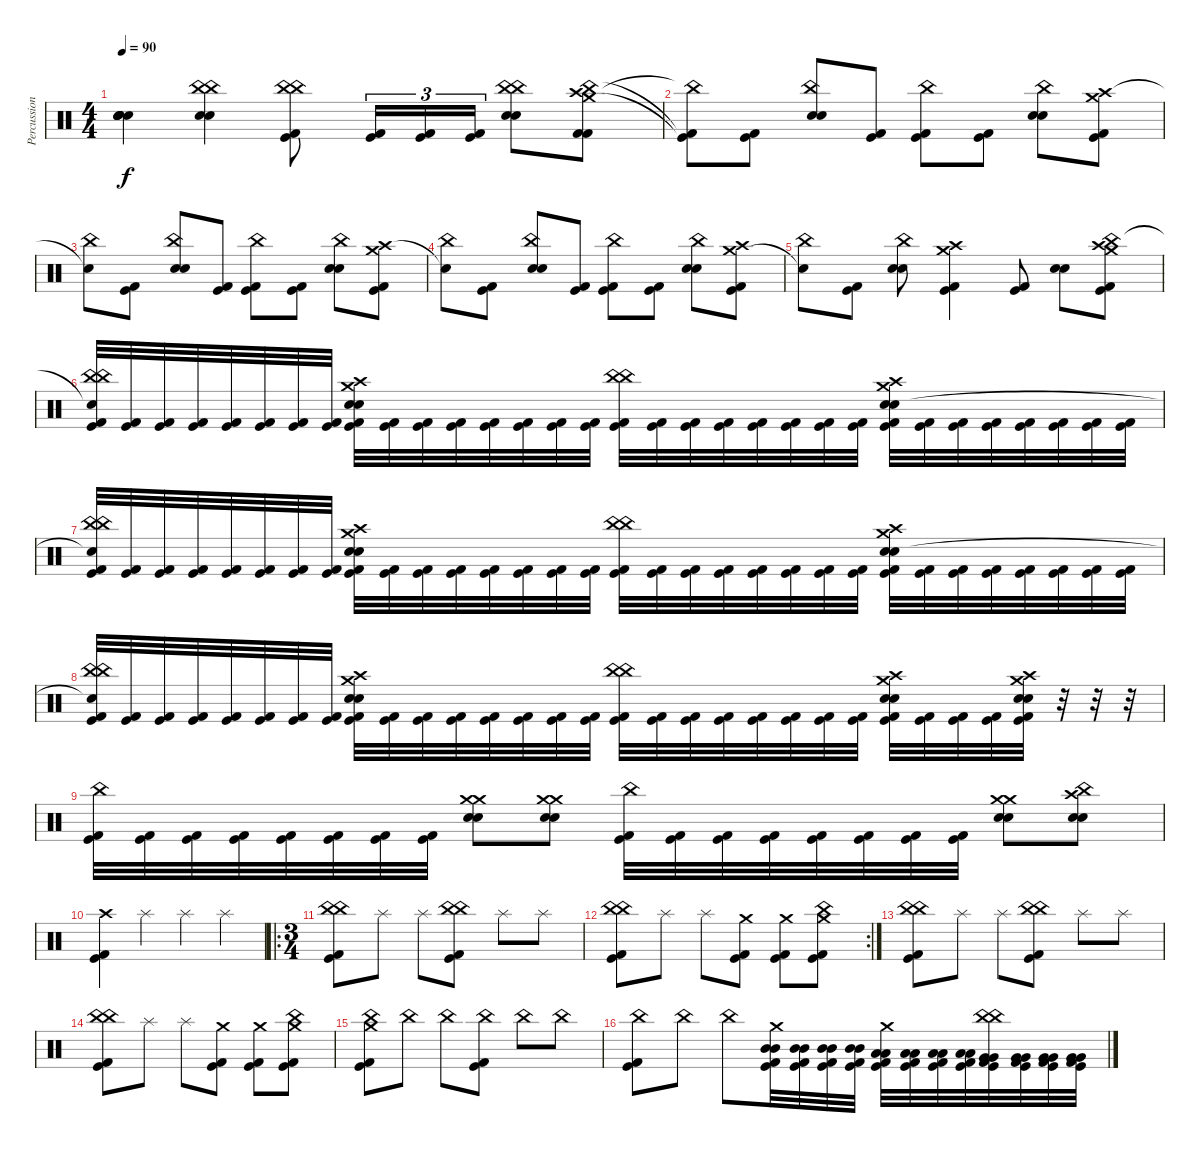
\track ("Percussion" "Percussion") {instrument percussion}
\staff {score}
\articulation defaults
\ts (4 4)
\tempo 90
\clef neutral
\ks c
("Snare (hit)"{t} "Snare (hit)"{t} "Snare (hit)"{t} "Snare (hit)"{t} "Snare (hit)"{t}).4{dy f} ("China (hit)" "China (hit)" "Electric Snare (hit)" "Snare (hit) 2").4 ("China (hit)" "China (hit)" "Kick (hit)" "Kick (hit) 2").8 ("Kick (hit)" "Kick (hit) 2").16{tu (3 2)} ("Kick (hit)" "Kick (hit) 2").16{tu (3 2)} ("Kick (hit)" "Kick (hit) 2").16{tu (3 2)} ("China (hit)" "China (hit)" "Electric Snare (hit)" "Snare (hit) 2").8 ("Crash high (hit)" "Crash medium (hit)" "China (hit)" "Kick (hit) 2" "Kick (hit) 2").8 |
("China (hit)"{t} "Kick (hit)"{t} "Kick (hit) 2"{t}).8 ("Kick (hit)" "Kick (hit) 2").8 ("China (hit)" "Electric Snare (hit)" "Snare (hit) 2").8 ("Kick (hit)" "Kick (hit) 2").8 ("China (hit)" "Kick (hit)" "Kick (hit) 2").8 ("Kick (hit)" "Kick (hit) 2").8 ("China (hit)" "Electric Snare (hit)" "Snare (hit) 2").8 ("Crash medium (hit)" "Crash high (hit)" "Kick (hit)" "Kick (hit) 2").8 |
("China (hit)" "Snare (hit)"{t}).8 ("Kick (hit)" "Kick (hit) 2").8 ("China (hit)" "Electric Snare (hit)" "Snare (hit) 2").8 ("Kick (hit)" "Kick (hit) 2").8 ("China (hit)" "Kick (hit)" "Kick (hit) 2").8 ("Kick (hit)" "Kick (hit) 2").8 ("China (hit)" "Electric Snare (hit)" "Snare (hit) 2").8 ("Crash medium (hit)" "Crash high (hit)" "Kick (hit)" "Kick (hit) 2").8 |
("China (hit)" "Snare (hit)"{t}).8 ("Kick (hit)" "Kick (hit) 2").8 ("China (hit)" "Electric Snare (hit)" "Snare (hit) 2").8 ("Kick (hit)" "Kick (hit) 2").8 ("China (hit)" "Kick (hit)" "Kick (hit) 2").8 ("Kick (hit)" "Kick (hit) 2").8 ("China (hit)" "Electric Snare (hit)" "Snare (hit) 2").8 ("Crash medium (hit)" "Crash high (hit)" "Kick (hit)" "Kick (hit) 2").8 |
("Snare (hit)"{t} "China (hit)").8 ("Kick (hit)" "Kick (hit) 2").8 ("China (hit)" "Electric Snare (hit)" "Snare (hit) 2").8 ("Crash medium (hit)" "Crash high (hit)" "Kick (hit)" "Kick (hit) 2").4 ("Kick (hit)" "Kick (hit) 2").8 ("Electric Snare (hit)" "Snare (hit) 2").8 ("Crash high (hit)" "Crash medium (hit)" "China (hit)" "Kick (hit)" "Kick (hit) 2").8 |
("China (hit)" "China (hit)" "Snare (hit)"{t} "Kick (hit)" "Kick (hit) 2").32 ("Kick (hit)" "Kick (hit) 2").32 ("Kick (hit)" "Kick (hit) 2").32 ("Kick (hit)" "Kick (hit) 2").32 ("Kick (hit)" "Kick (hit) 2").32 ("Kick (hit)" "Kick (hit) 2").32 ("Kick (hit)" "Kick (hit) 2").32 ("Kick (hit)" "Kick (hit) 2").32 ("Crash high (hit)" "Crash medium (hit)" "Electric Snare (hit)" "Snare (hit) 2" "Kick (hit)" "Kick (hit) 2").32 ("Kick (hit)" "Kick (hit) 2").32 ("Kick (hit)" "Kick (hit) 2").32 ("Kick (hit)" "Kick (hit) 2").32 ("Kick (hit)" "Kick (hit) 2").32 ("Kick (hit)" "Kick (hit) 2").32 ("Kick (hit)" "Kick (hit) 2").32 ("Kick (hit)" "Kick (hit) 2").32 ("China (hit)" "China (hit)" "Kick (hit)" "Kick (hit) 2").32 ("Kick (hit)" "Kick (hit) 2").32 ("Kick (hit)" "Kick (hit) 2").32 ("Kick (hit)" "Kick (hit) 2").32 ("Kick (hit)" "Kick (hit) 2").32 ("Kick (hit)" "Kick (hit) 2").32 ("Kick (hit)" "Kick (hit) 2").32 ("Kick (hit)" "Kick (hit) 2").32 ("Crash high (hit)" "Crash medium (hit)" "Electric Snare (hit)" "Snare (hit) 2" "Kick (hit)" "Kick (hit) 2").32 ("Kick (hit)" "Kick (hit) 2").32 ("Kick (hit)" "Kick (hit) 2").32 ("Kick (hit)" "Kick (hit) 2").32 ("Kick (hit)" "Kick (hit) 2").32 ("Kick (hit)" "Kick (hit) 2").32 ("Kick (hit)" "Kick (hit) 2").32 ("Kick (hit)" "Kick (hit) 2").32 |
("China (hit)" "China (hit)" "Snare (hit)"{t} "Kick (hit)" "Kick (hit) 2").32 ("Kick (hit)" "Kick (hit) 2").32 ("Kick (hit)" "Kick (hit) 2").32 ("Kick (hit)" "Kick (hit) 2").32 ("Kick (hit)" "Kick (hit) 2").32 ("Kick (hit)" "Kick (hit) 2").32 ("Kick (hit)" "Kick (hit) 2").32 ("Kick (hit)" "Kick (hit) 2").32 ("Crash high (hit)" "Crash medium (hit)" "Electric Snare (hit)" "Snare (hit) 2" "Kick (hit)" "Kick (hit) 2").32 ("Kick (hit)" "Kick (hit) 2").32 ("Kick (hit)" "Kick (hit) 2").32 ("Kick (hit)" "Kick (hit) 2").32 ("Kick (hit)" "Kick (hit) 2").32 ("Kick (hit)" "Kick (hit) 2").32 ("Kick (hit)" "Kick (hit) 2").32 ("Kick (hit)" "Kick (hit) 2").32 ("China (hit)" "China (hit)" "Kick (hit)" "Kick (hit) 2").32 ("Kick (hit)" "Kick (hit) 2").32 ("Kick (hit)" "Kick (hit) 2").32 ("Kick (hit)" "Kick (hit) 2").32 ("Kick (hit)" "Kick (hit) 2").32 ("Kick (hit)" "Kick (hit) 2").32 ("Kick (hit)" "Kick (hit) 2").32 ("Kick (hit)" "Kick (hit) 2").32 ("Crash high (hit)" "Crash medium (hit)" "Electric Snare (hit)" "Snare (hit) 2" "Kick (hit)" "Kick (hit) 2").32 ("Kick (hit)" "Kick (hit) 2").32 ("Kick (hit)" "Kick (hit) 2").32 ("Kick (hit)" "Kick (hit) 2").32 ("Kick (hit)" "Kick (hit) 2").32 ("Kick (hit)" "Kick (hit) 2").32 ("Kick (hit)" "Kick (hit) 2").32 ("Kick (hit)" "Kick (hit) 2").32 |
("China (hit)" "China (hit)" "Snare (hit)"{t} "Kick (hit)" "Kick (hit) 2").32 ("Kick (hit)" "Kick (hit) 2").32 ("Kick (hit)" "Kick (hit) 2").32 ("Kick (hit)" "Kick (hit) 2").32 ("Kick (hit)" "Kick (hit) 2").32 ("Kick (hit)" "Kick (hit) 2").32 ("Kick (hit)" "Kick (hit) 2").32 ("Kick (hit)" "Kick (hit) 2").32 ("Crash high (hit)" "Crash medium (hit)" "Electric Snare (hit)" "Snare (hit) 2" "Kick (hit)" "Kick (hit) 2").32 ("Kick (hit)" "Kick (hit) 2").32 ("Kick (hit)" "Kick (hit) 2").32 ("Kick (hit)" "Kick (hit) 2").32 ("Kick (hit)" "Kick (hit) 2").32 ("Kick (hit)" "Kick (hit) 2").32 ("Kick (hit)" "Kick (hit) 2").32 ("Kick (hit)" "Kick (hit) 2").32 ("China (hit)" "China (hit)" "Kick (hit)" "Kick (hit) 2").32 ("Kick (hit)" "Kick (hit) 2").32 ("Kick (hit)" "Kick (hit) 2").32 ("Kick (hit)" "Kick (hit) 2").32 ("Kick (hit)" "Kick (hit) 2").32 ("Kick (hit)" "Kick (hit) 2").32 ("Kick (hit)" "Kick (hit) 2").32 ("Kick (hit)" "Kick (hit) 2").32 ("Crash high (hit)" "Crash medium (hit)" "Electric Snare (hit)" "Snare (hit) 2" "Kick (hit)" "Kick (hit) 2").32 ("Kick (hit)" "Kick (hit) 2").32 ("Kick (hit)" "Kick (hit) 2").32 ("Kick (hit)" "Kick (hit) 2").32 ("Crash high (hit)" "Crash medium (hit)" "Electric Snare (hit)" "Snare (hit) 2" "Kick (hit)" "Kick (hit) 2").32 r.32 r.32 r.32 |
("China (hit)" "Kick (hit)" "Kick (hit) 2").32 ("Kick (hit)" "Kick (hit) 2").32 ("Kick (hit)" "Kick (hit) 2").32 ("Kick (hit)" "Kick (hit) 2").32 ("Kick (hit)" "Kick (hit) 2").32 ("Kick (hit)" "Kick (hit) 2").32 ("Kick (hit)" "Kick (hit) 2").32 ("Kick (hit)" "Kick (hit) 2").32 ("Crash medium (hit)" "Crash medium (hit)" "Electric Snare (hit)" "Snare (hit) 2").8 ("Crash medium (hit)" "Crash medium (hit)" "Electric Snare (hit)" "Snare (hit) 2").8 ("China (hit)" "Kick (hit)" "Kick (hit) 2").32 ("Kick (hit)" "Kick (hit) 2").32 ("Kick (hit)" "Kick (hit) 2").32 ("Kick (hit)" "Kick (hit) 2").32 ("Kick (hit)" "Kick (hit) 2").32 ("Kick (hit)" "Kick (hit) 2").32 ("Kick (hit)" "Kick (hit) 2").32 ("Kick (hit)" "Kick (hit) 2").32 ("Crash medium (hit)" "Crash medium (hit)" "Electric Snare (hit)" "Snare (hit) 2").8 ("Crash high (hit)" "China (hit)" "Electric Snare (hit)" "Snare (hit) 2").8 |
("Crash high (hit)" "Kick (hit)" "Kick (hit) 2").4 "Splash (hit)".4 "Splash (hit)".4 "Splash (hit)".4 |
\ro
\ts (3 4)
("China (hit)" "China (hit)" "Kick (hit)" "Kick (hit) 2").8 "Splash (hit)".8 "Splash (hit)".8 ("China (hit)" "China (hit)" "Kick (hit)" "Kick (hit) 2").8 "Splash (hit)".8 "Splash (hit)".8 |
\rc 2
("China (hit)" "China (hit)" "Kick (hit)" "Kick (hit) 2").8 "Splash (hit)".8 "Splash (hit)".8 ("Crash medium (hit)" "Kick (hit)" "Kick (hit) 2").8 ("Crash medium (hit)" "Kick (hit)" "Kick (hit) 2").8 ("China (hit)" "Crash medium (hit)" "Kick (hit)" "Kick (hit) 2").8 |
("China (hit)" "China (hit)" "Kick (hit)" "Kick (hit) 2").8 "Splash (hit)".8 "Splash (hit)".8 ("China (hit)" "China (hit)" "Kick (hit)" "Kick (hit) 2").8 "Splash (hit)".8 "Splash (hit)".8 |
("China (hit)" "China (hit)" "Kick (hit)" "Kick (hit) 2").8 "Splash (hit)".8 "Splash (hit)".8 ("Crash medium (hit)" "Kick (hit)" "Kick (hit) 2").8 ("Crash medium (hit)" "Kick (hit)" "Kick (hit) 2").8 ("China (hit)" "Crash medium (hit)" "Kick (hit)" "Kick (hit) 2").8 |
("Crash medium (hit)" "China (hit)" "Kick (hit)" "Kick (hit) 2").8 "China (hit)".8 "China (hit)".8 ("China (hit)" "Kick (hit)" "Kick (hit) 2").8 "China (hit)".8 "China (hit)".8 |
("China (hit)" "Kick (hit)" "Kick (hit) 2").8 "China (hit)".8 "China (hit)".8 ("Crash medium (hit)" "Mid Tom (hit)" "Mid Tom (hit)" "Kick (hit)" "Kick (hit) 2").32 ("Mid Tom (hit)" "Mid Tom (hit)" "Kick (hit)" "Kick (hit) 2").32 ("Mid Tom (hit)" "Mid Tom (hit)" "Kick (hit)" "Kick (hit) 2").32 ("Mid Tom (hit)" "Mid Tom (hit)" "Kick (hit)" "Kick (hit) 2").32 ("Crash medium (hit)" "Low Tom (hit)" "Low Tom (hit)" "Kick (hit)" "Kick (hit) 2").32 ("Low Tom (hit)" "Low Tom (hit)" "Kick (hit)" "Kick (hit) 2").32 ("Low Tom (hit)" "Low Tom (hit)" "Kick (hit)" "Kick (hit) 2").32 ("Low Tom (hit)" "Low Tom (hit)" "Kick (hit)" "Kick (hit) 2").32 ("China (hit)" "China (hit)" "Kick (hit)" "Very Low Tom (hit)" "Very Low Tom (hit)" "Kick (hit) 2").32 ("Kick (hit)" "Very Low Tom (hit)" "Very Low Tom (hit)" "Kick (hit) 2").32 ("Kick (hit)" "Very Low Tom (hit)" "Very Low Tom (hit)" "Kick (hit) 2").32 ("Kick (hit)" "Very Low Tom (hit)" "Very Low Tom (hit)" "Kick (hit) 2").32
